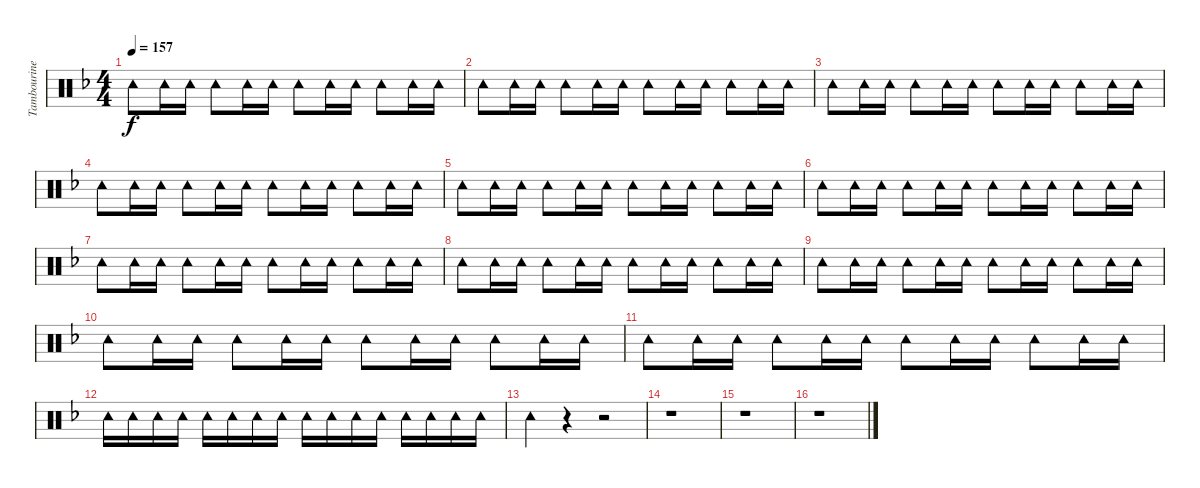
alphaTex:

\track ("Tambourine" "Tambourine") {instrument percussion}
\staff {score}
\articulation defaults
\ts (4 4)
\tempo 157
\clef neutral
\ks f "Tambourine (hit)".8{dy f} "Tambourine (hit)".16 "Tambourine (hit)".16 "Tambourine (hit)".8 "Tambourine (hit)".16 "Tambourine (hit)".16 "Tambourine (hit)".8 "Tambourine (hit)".16 "Tambourine (hit)".16 "Tambourine (hit)".8 "Tambourine (hit)".16 "Tambourine (hit)".16
|
"Tambourine (hit)".8 "Tambourine (hit)".16 "Tambourine (hit)".16 "Tambourine (hit)".8 "Tambourine (hit)".16 "Tambourine (hit)".16 "Tambourine (hit)".8 "Tambourine (hit)".16 "Tambourine (hit)".16 "Tambourine (hit)".8 "Tambourine (hit)".16 "Tambourine (hit)".16 |
"Tambourine (hit)".8 "Tambourine (hit)".16 "Tambourine (hit)".16 "Tambourine (hit)".8 "Tambourine (hit)".16 "Tambourine (hit)".16 "Tambourine (hit)".8 "Tambourine (hit)".16 "Tambourine (hit)".16 "Tambourine (hit)".8 "Tambourine (hit)".16 "Tambourine (hit)".16 |
"Tambourine (hit)".8 "Tambourine (hit)".16 "Tambourine (hit)".16 "Tambourine (hit)".8 "Tambourine (hit)".16 "Tambourine (hit)".16 "Tambourine (hit)".8 "Tambourine (hit)".16 "Tambourine (hit)".16 "Tambourine (hit)".8 "Tambourine (hit)".16 "Tambourine (hit)".16 |
"Tambourine (hit)".8 "Tambourine (hit)".16 "Tambourine (hit)".16 "Tambourine (hit)".8 "Tambourine (hit)".16 "Tambourine (hit)".16 "Tambourine (hit)".8 "Tambourine (hit)".16 "Tambourine (hit)".16 "Tambourine (hit)".8 "Tambourine (hit)".16 "Tambourine (hit)".16 |
"Tambourine (hit)".8 "Tambourine (hit)".16 "Tambourine (hit)".16 "Tambourine (hit)".8 "Tambourine (hit)".16 "Tambourine (hit)".16 "Tambourine (hit)".8 "Tambourine (hit)".16 "Tambourine (hit)".16 "Tambourine (hit)".8 "Tambourine (hit)".16 "Tambourine (hit)".16 |
"Tambourine (hit)".8 "Tambourine (hit)".16 "Tambourine (hit)".16 "Tambourine (hit)".8 "Tambourine (hit)".16 "Tambourine (hit)".16 "Tambourine (hit)".8 "Tambourine (hit)".16 "Tambourine (hit)".16 "Tambourine (hit)".8 "Tambourine (hit)".16 "Tambourine (hit)".16 |
"Tambourine (hit)".8 "Tambourine (hit)".16 "Tambourine (hit)".16 "Tambourine (hit)".8 "Tambourine (hit)".16 "Tambourine (hit)".16 "Tambourine (hit)".8 "Tambourine (hit)".16 "Tambourine (hit)".16 "Tambourine (hit)".8 "Tambourine (hit)".16 "Tambourine (hit)".16 |
"Tambourine (hit)".8 "Tambourine (hit)".16 "Tambourine (hit)".16 "Tambourine (hit)".8 "Tambourine (hit)".16 "Tambourine (hit)".16 "Tambourine (hit)".8 "Tambourine (hit)".16 "Tambourine (hit)".16 "Tambourine (hit)".8 "Tambourine (hit)".16 "Tambourine (hit)".16 |
"Tambourine (hit)".8 "Tambourine (hit)".16 "Tambourine (hit)".16 "Tambourine (hit)".8 "Tambourine (hit)".16 "Tambourine (hit)".16 "Tambourine (hit)".8 "Tambourine (hit)".16 "Tambourine (hit)".16 "Tambourine (hit)".8 "Tambourine (hit)".16 "Tambourine (hit)".16 |
"Tambourine (hit)".8 "Tambourine (hit)".16 "Tambourine (hit)".16 "Tambourine (hit)".8 "Tambourine (hit)".16 "Tambourine (hit)".16 "Tambourine (hit)".8 "Tambourine (hit)".16 "Tambourine (hit)".16 "Tambourine (hit)".8 "Tambourine (hit)".16 "Tambourine (hit)".16 |
"Tambourine (hit)".16 "Tambourine (hit)".16 "Tambourine (hit)".16 "Tambourine (hit)".16 "Tambourine (hit)".16 "Tambourine (hit)".16 "Tambourine (hit)".16 "Tambourine (hit)".16 "Tambourine (hit)".16 "Tambourine (hit)".16 "Tambourine (hit)".16 "Tambourine (hit)".16 "Tambourine (hit)".16 "Tambourine (hit)".16 "Tambourine (hit)".16 "Tambourine (hit)".16 |
"Tambourine (hit)".4 r.4 r.2 |
r.1 |
r.1 |
r.1
